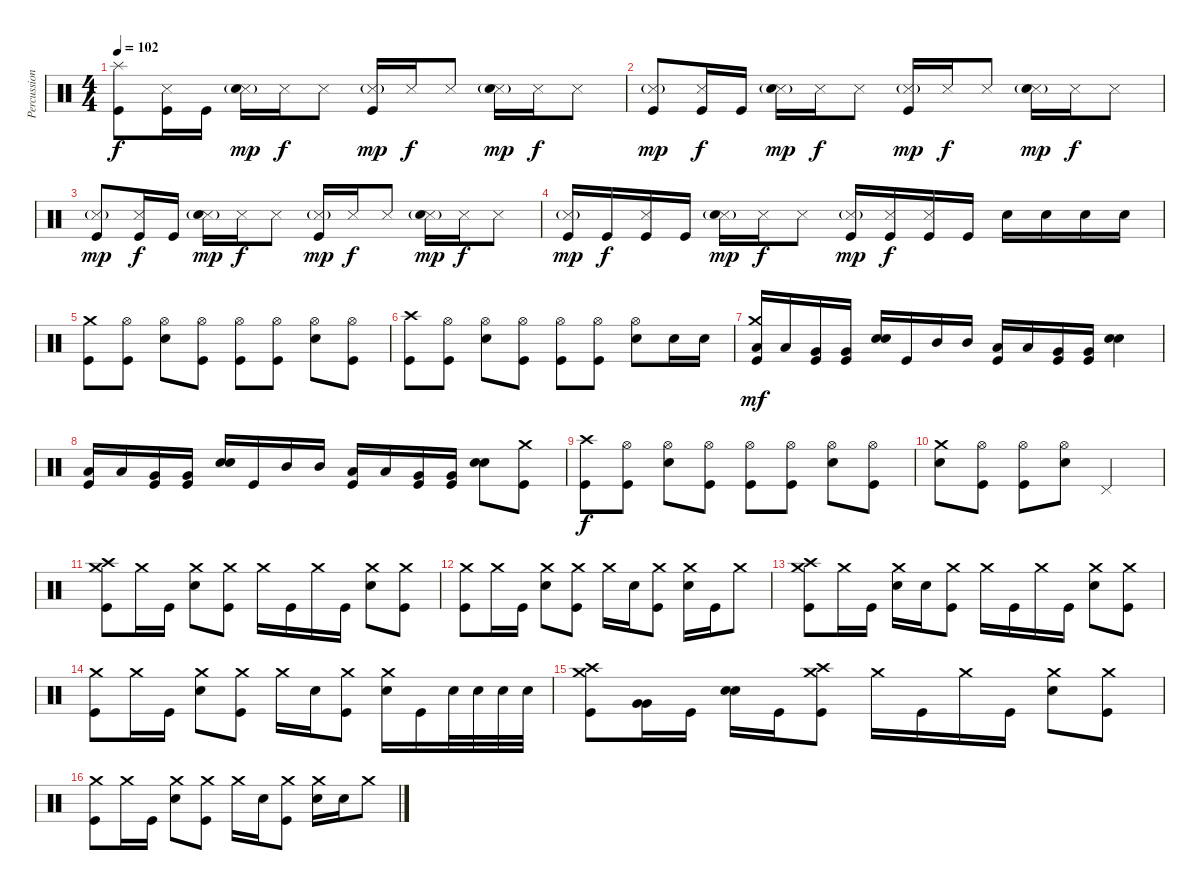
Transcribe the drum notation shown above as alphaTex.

\track ("Percussion" "Percussion") {instrument percussion}
\staff {score}
\articulation defaults
\ts (4 4)
\tempo 102
\clef neutral
\ks c
("Splash (hit)" "Kick (hit)").8{dy f} ("Snare (side stick) 3" "Kick (hit)").16 "Kick (hit)".16 ("Snare (side stick) 3"{g} "Snare (hit) 2").16{dy mp} "Snare (side stick) 3".16{dy f} "Snare (side stick) 3".8 ("Snare (side stick) 3"{g} "Kick (hit)").16{dy mp} "Snare (side stick) 3".16{dy f} "Snare (side stick) 3".8 ("Snare (side stick) 3"{g} "Snare (hit) 2").16{dy mp} "Snare (side stick) 3".16{dy f} "Snare (side stick) 3".8 |
("Snare (side stick) 3"{g} "Kick (hit)").8{dy mp} ("Snare (side stick) 3" "Kick (hit)").16{dy f} "Kick (hit)".16 ("Snare (side stick) 3"{g} "Snare (hit) 2").16{dy mp} "Snare (side stick) 3".16{dy f} "Snare (side stick) 3".8 ("Snare (side stick) 3"{g} "Kick (hit)").16{dy mp} "Snare (side stick) 3".16{dy f} "Snare (side stick) 3".8 ("Snare (side stick) 3"{g} "Snare (hit) 2").16{dy mp} "Snare (side stick) 3".16{dy f} "Snare (side stick) 3".8 |
("Snare (side stick) 3"{g} "Kick (hit)").8{dy mp} ("Snare (side stick) 3" "Kick (hit)").16{dy f} "Kick (hit)".16 ("Snare (side stick) 3"{g} "Snare (hit) 2").16{dy mp} "Snare (side stick) 3".16{dy f} "Snare (side stick) 3".8 ("Snare (side stick) 3"{g} "Kick (hit)").16{dy mp} "Snare (side stick) 3".16{dy f} "Snare (side stick) 3".8 ("Snare (side stick) 3"{g} "Snare (hit) 2").16{dy mp} "Snare (side stick) 3".16{dy f} "Snare (side stick) 3".8 |
("Snare (side stick) 3"{g} "Kick (hit)").16{dy mp} "Kick (hit)".16{dy f} ("Snare (side stick) 3" "Kick (hit)").16 "Kick (hit)".16 ("Snare (side stick) 3"{g} "Snare (hit) 2").16{dy mp} "Snare (side stick) 3".16{dy f} "Snare (side stick) 3".8 ("Snare (side stick) 3"{g} "Kick (hit)").16{dy mp} ("Snare (side stick) 3" "Kick (hit)").16{dy f} ("Snare (side stick) 3" "Kick (hit)").16 "Kick (hit)".16 "Snare (hit) 2".16 "Snare (hit) 2".16 "Snare (hit) 2".16 "Snare (hit) 2".16 |
("Crash medium (hit)" "Kick (hit)").8 ("Hi-Hat (open)" "Kick (hit)").8 ("Hi-Hat (open)" "Snare (hit) 2").8 ("Hi-Hat (open)" "Kick (hit)").8 ("Hi-Hat (open)" "Kick (hit)").8 ("Hi-Hat (open)" "Kick (hit)").8 ("Hi-Hat (open)" "Snare (hit) 2").8 ("Hi-Hat (open)" "Kick (hit)").8 |
("Crash high (hit)" "Kick (hit)").8 ("Hi-Hat (open)" "Kick (hit)").8 ("Hi-Hat (open)" "Snare (hit) 2").8 ("Hi-Hat (open)" "Kick (hit)").8 ("Hi-Hat (open)" "Kick (hit)").8 ("Hi-Hat (open)" "Kick (hit)").8 ("Hi-Hat (open)" "Snare (hit) 2").8 "Snare (hit) 2".16 "Snare (hit) 2".16 |
("Crash medium (hit)" "Low Tom (hit)" "Kick (hit)").16{dy mf} "Low Tom (hit)".16 ("Very Low Tom (hit)" "Kick (hit)").16 ("Very Low Tom (hit)" "Kick (hit)").16 ("Snare (hit) 2" "Snare (hit) 2").16 "Kick (hit)".16 "Mid Tom (hit)".16 "Mid Tom (hit)".16 ("Low Tom (hit)" "Kick (hit)").16 "Low Tom (hit)".16 ("Very Low Tom (hit)" "Kick (hit)").16 ("Very Low Tom (hit)" "Kick (hit)").16 ("Snare (hit) 2" "Snare (hit) 2").4 |
("Low Tom (hit)" "Kick (hit)").16 "Low Tom (hit)".16 ("Very Low Tom (hit)" "Kick (hit)").16 ("Very Low Tom (hit)" "Kick (hit)").16 ("Snare (hit) 2" "Snare (hit) 2").16 "Kick (hit)".16 "Mid Tom (hit)".16 "Mid Tom (hit)".16 ("Low Tom (hit)" "Kick (hit)").16 "Low Tom (hit)".16 ("Very Low Tom (hit)" "Kick (hit)").16 ("Very Low Tom (hit)" "Kick (hit)").16 ("Snare (hit) 2" "Snare (hit) 2").8 ("Crash medium (hit)" "Kick (hit)").8 |
("Crash high (hit)" "Kick (hit)").8{dy f} ("Hi-Hat (open)" "Kick (hit)").8 ("Hi-Hat (open)" "Snare (hit) 2").8 ("Hi-Hat (open)" "Kick (hit)").8 ("Hi-Hat (open)" "Kick (hit)").8 ("Hi-Hat (open)" "Kick (hit)").8 ("Hi-Hat (open)" "Snare (hit) 2").8 ("Hi-Hat (open)" "Kick (hit)").8 |
("Crash medium (hit)" "Snare (hit) 2").8 ("Hi-Hat (open)" "Kick (hit)").8 ("Hi-Hat (open)" "Kick (hit)").8 ("Hi-Hat (open)" "Snare (hit) 2").8 "Pedal Hi-Hat (hit)".2 |
("Crash high (hit)" "Crash medium (hit)" "Kick (hit)").8 "Crash medium (hit)".16 "Kick (hit)".16 ("Crash medium (hit)" "Snare (hit) 2").8 ("Crash medium (hit)" "Kick (hit)").8 "Crash medium (hit)".16 "Kick (hit)".16 "Crash medium (hit)".16 "Kick (hit)".16 ("Crash medium (hit)" "Snare (hit) 2").8 ("Crash medium (hit)" "Kick (hit)").8 |
("Crash medium (hit)" "Kick (hit)").8 "Crash medium (hit)".16 "Kick (hit)".16 ("Crash medium (hit)" "Snare (hit) 2").8 ("Crash medium (hit)" "Kick (hit)").8 "Crash medium (hit)".16 "Snare (hit) 2".16 ("Crash medium (hit)" "Kick (hit)").8 ("Crash medium (hit)" "Snare (hit) 2").16 "Kick (hit)".16 "Crash medium (hit)".8 |
("Crash high (hit)" "Crash medium (hit)" "Kick (hit)").8 "Crash medium (hit)".16 "Kick (hit)".16 ("Crash medium (hit)" "Snare (hit) 2").16 "Snare (hit) 2".16 ("Crash medium (hit)" "Kick (hit)").8 "Crash medium (hit)".16 "Kick (hit)".16 "Crash medium (hit)".16 "Kick (hit)".16 ("Crash medium (hit)" "Snare (hit) 2").8 ("Crash medium (hit)" "Kick (hit)").8 |
("Crash medium (hit)" "Kick (hit)").8 "Crash medium (hit)".16 "Kick (hit)".16 ("Crash medium (hit)" "Snare (hit) 2").8 ("Crash medium (hit)" "Kick (hit)").8 "Crash medium (hit)".16 "Snare (hit) 2".16 ("Crash medium (hit)" "Kick (hit)").8 ("Crash medium (hit)" "Snare (hit) 2").16 "Kick (hit)".16 "Snare (hit) 2".32 "Snare (hit) 2".32 "Snare (hit) 2".32 "Snare (hit) 2".32 |
("Crash medium (hit)" "Crash high (hit)" "Kick (hit)").8 ("Very Low Tom (hit)" "Very Low Tom (hit)").16 "Kick (hit)".16 ("Snare (hit) 2" "Snare (hit) 2").16 "Kick (hit)".16 ("Crash high (hit)" "Crash medium (hit)" "Kick (hit)").8 "Crash medium (hit)".16 "Kick (hit)".16 "Crash medium (hit)".16 "Kick (hit)".16 ("Crash medium (hit)" "Snare (hit) 2").8 ("Crash medium (hit)" "Kick (hit)").8 |
("Crash medium (hit)" "Kick (hit)").8 "Crash medium (hit)".16 "Kick (hit)".16 ("Crash medium (hit)" "Snare (hit) 2").8 ("Crash medium (hit)" "Kick (hit)").8 "Crash medium (hit)".16 "Snare (hit) 2".16 ("Crash medium (hit)" "Kick (hit)").8 ("Crash medium (hit)" "Snare (hit) 2").16 "Snare (hit) 2".16 "Crash medium (hit)".8
